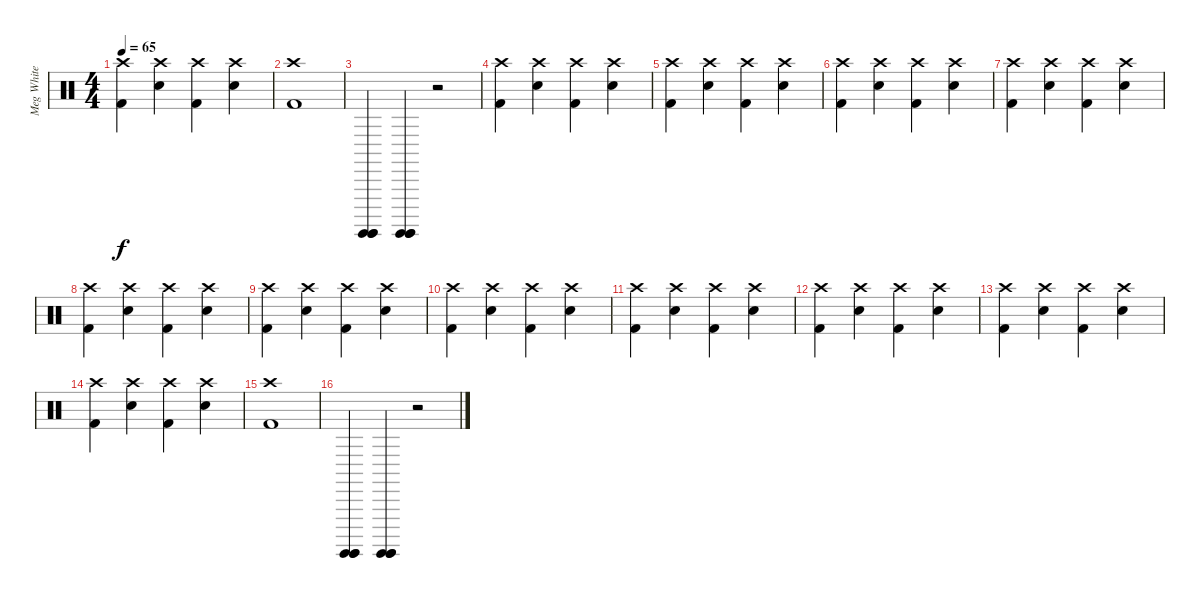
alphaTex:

\track ("Meg White" "Meg White") {instrument percussion}
\staff {score}
\articulation defaults
\ts (4 4)
\tempo 65
\clef neutral
\ks c
("Kick (hit) 2" "Crash high (hit)").4{dy f} ("Electric Snare (hit)" "Crash high (hit)").4 ("Kick (hit) 2" "Crash high (hit)").4 ("Electric Snare (hit)" "Crash high (hit)").4 |
("Kick (hit) 2" "Crash high (hit)").1 |
("Surdo (hit)" "Surdo (hit)" "Surdo (hit)").4 ("Surdo (hit)" "Surdo (hit)" "Surdo (hit)").4 r.2 |
("Kick (hit) 2" "Crash high (hit)").4 ("Electric Snare (hit)" "Crash high (hit)").4 ("Kick (hit) 2" "Crash high (hit)").4 ("Electric Snare (hit)" "Crash high (hit)").4 |
("Kick (hit) 2" "Crash high (hit)").4 ("Electric Snare (hit)" "Crash high (hit)").4 ("Kick (hit) 2" "Crash high (hit)").4 ("Electric Snare (hit)" "Crash high (hit)").4 |
("Kick (hit) 2" "Crash high (hit)").4 ("Electric Snare (hit)" "Crash high (hit)").4 ("Kick (hit) 2" "Crash high (hit)").4 ("Electric Snare (hit)" "Crash high (hit)").4 |
("Kick (hit) 2" "Crash high (hit)").4 ("Electric Snare (hit)" "Crash high (hit)").4 ("Kick (hit) 2" "Crash high (hit)").4 ("Electric Snare (hit)" "Crash high (hit)").4 |
("Kick (hit) 2" "Crash high (hit)").4 ("Electric Snare (hit)" "Crash high (hit)").4 ("Kick (hit) 2" "Crash high (hit)").4 ("Electric Snare (hit)" "Crash high (hit)").4 |
("Kick (hit) 2" "Crash high (hit)").4 ("Electric Snare (hit)" "Crash high (hit)").4 ("Kick (hit) 2" "Crash high (hit)").4 ("Electric Snare (hit)" "Crash high (hit)").4 |
("Kick (hit) 2" "Crash high (hit)").4 ("Electric Snare (hit)" "Crash high (hit)").4 ("Kick (hit) 2" "Crash high (hit)").4 ("Electric Snare (hit)" "Crash high (hit)").4 |
("Kick (hit) 2" "Crash high (hit)").4 ("Electric Snare (hit)" "Crash high (hit)").4 ("Kick (hit) 2" "Crash high (hit)").4 ("Electric Snare (hit)" "Crash high (hit)").4 |
("Kick (hit) 2" "Crash high (hit)").4 ("Electric Snare (hit)" "Crash high (hit)").4 ("Kick (hit) 2" "Crash high (hit)").4 ("Electric Snare (hit)" "Crash high (hit)").4 |
("Kick (hit) 2" "Crash high (hit)").4 ("Electric Snare (hit)" "Crash high (hit)").4 ("Kick (hit) 2" "Crash high (hit)").4 ("Electric Snare (hit)" "Crash high (hit)").4 |
("Kick (hit) 2" "Crash high (hit)").4 ("Electric Snare (hit)" "Crash high (hit)").4 ("Kick (hit) 2" "Crash high (hit)").4 ("Electric Snare (hit)" "Crash high (hit)").4 |
("Kick (hit) 2" "Crash high (hit)").1 |
("Surdo (hit)" "Surdo (hit)" "Surdo (hit)").4 ("Surdo (hit)" "Surdo (hit)" "Surdo (hit)").4 r.2
